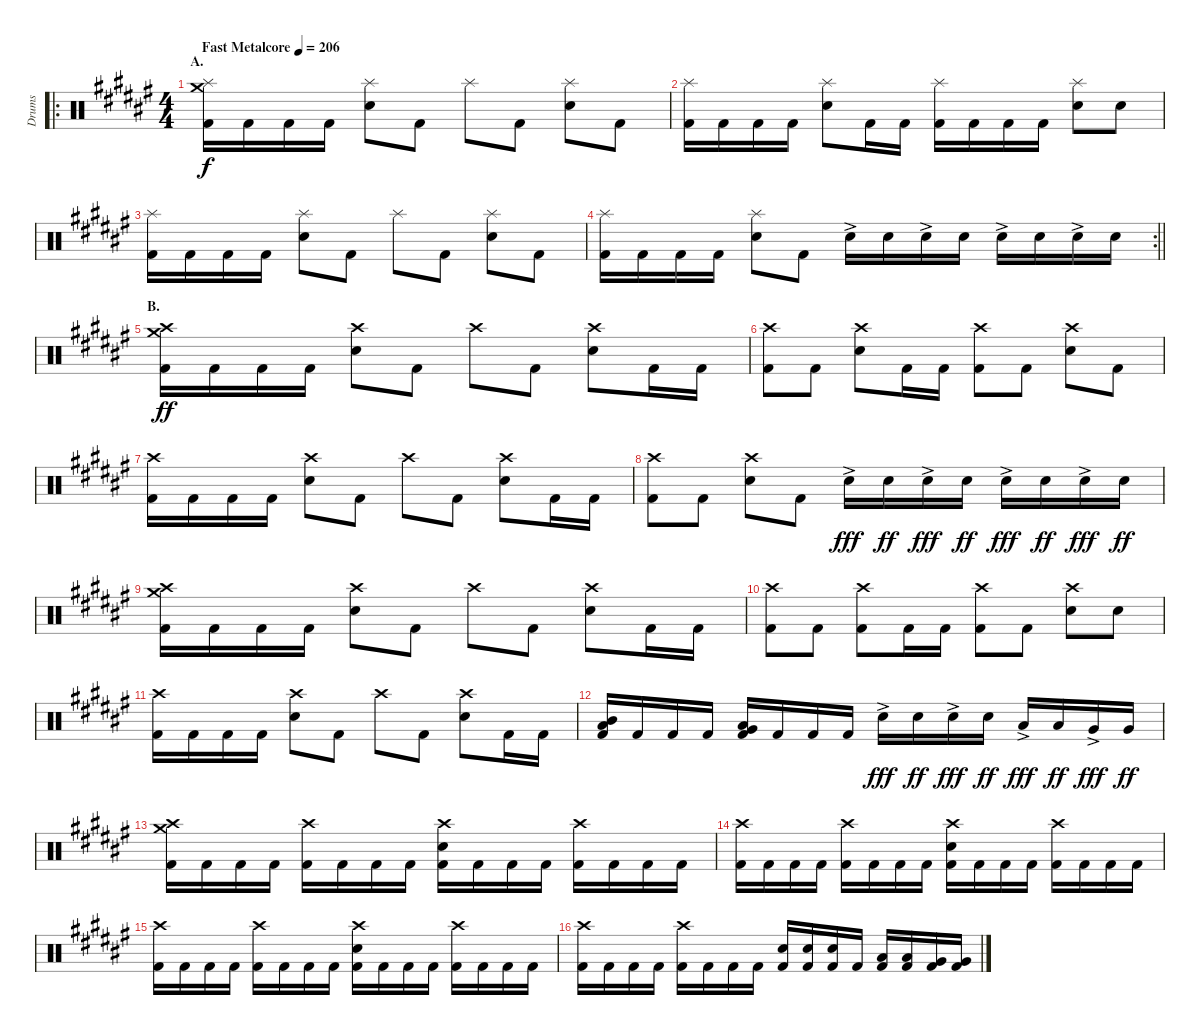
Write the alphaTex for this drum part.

\track ("Drums" "Drums") {instrument percussion}
\staff {score}
\articulation defaults
\ro
\ts (4 4)
\section ("" "A.")
\tempo (206 "Fast Metalcore")
\clef neutral
\ks f#
("Crash medium (hit)" "Splash (hit)" "Kick (hit) 2").16{dy f volume 10} "Kick (hit) 2".16 "Kick (hit) 2".16 "Kick (hit) 2".16 ("Splash (hit)" "Electric Snare (hit)").8 "Kick (hit) 2".8 "Splash (hit)".8 "Kick (hit) 2".8 ("Splash (hit)" "Electric Snare (hit)").8 "Kick (hit) 2".8 |
("Splash (hit)" "Kick (hit) 2").16 "Kick (hit) 2".16 "Kick (hit) 2".16 "Kick (hit) 2".16 ("Splash (hit)" "Electric Snare (hit)").8 "Kick (hit) 2".16 "Kick (hit) 2".16 ("Splash (hit)" "Kick (hit) 2").16 "Kick (hit) 2".16 "Kick (hit) 2".16 "Kick (hit) 2".16 ("Splash (hit)" "Electric Snare (hit)").8 "Electric Snare (hit)".8 |
("Splash (hit)" "Kick (hit) 2").16 "Kick (hit) 2".16 "Kick (hit) 2".16 "Kick (hit) 2".16 ("Splash (hit)" "Electric Snare (hit)").8 "Kick (hit) 2".8 "Splash (hit)".8 "Kick (hit) 2".8 ("Splash (hit)" "Electric Snare (hit)").8 "Kick (hit) 2".8 |
\rc 2
\barLineRight lightlight
("Splash (hit)" "Kick (hit) 2").16 "Kick (hit) 2".16 "Kick (hit) 2".16 "Kick (hit) 2".16 ("Splash (hit)" "Electric Snare (hit)").8 "Kick (hit) 2".8 "Electric Snare (hit)"{ac}.16 "Electric Snare (hit)".16 "Electric Snare (hit)"{ac}.16 "Electric Snare (hit)".16 "Electric Snare (hit)"{ac}.16 "Electric Snare (hit)".16 "Electric Snare (hit)"{ac}.16 "Electric Snare (hit)".16 |
\section ("" "B.")
("Crash medium (hit)" "Crash high (hit)" "Kick (hit) 2").16{dy ff volume 14} "Kick (hit) 2".16 "Kick (hit) 2".16 "Kick (hit) 2".16 ("Crash high (hit)" "Electric Snare (hit)").8 "Kick (hit) 2".8 "Crash high (hit)".8 "Kick (hit) 2".8 ("Crash high (hit)" "Electric Snare (hit)").8 "Kick (hit) 2".16 "Kick (hit) 2".16 |
("Crash high (hit)" "Kick (hit) 2").8 "Kick (hit) 2".8 ("Crash high (hit)" "Electric Snare (hit)").8 "Kick (hit) 2".16 "Kick (hit) 2".16 ("Crash high (hit)" "Kick (hit) 2").8 "Kick (hit) 2".8 ("Crash high (hit)" "Electric Snare (hit)").8 "Kick (hit) 2".8 |
("Crash high (hit)" "Kick (hit) 2").16 "Kick (hit) 2".16 "Kick (hit) 2".16 "Kick (hit) 2".16 ("Crash high (hit)" "Electric Snare (hit)").8 "Kick (hit) 2".8 "Crash high (hit)".8 "Kick (hit) 2".8 ("Crash high (hit)" "Electric Snare (hit)").8 "Kick (hit) 2".16 "Kick (hit) 2".16 |
("Crash high (hit)" "Kick (hit) 2").8 "Kick (hit) 2".8 ("Crash high (hit)" "Electric Snare (hit)").8 "Kick (hit) 2".8 "Electric Snare (hit)"{ac}.16{dy fff} "Electric Snare (hit)".16{dy ff} "Electric Snare (hit)"{ac}.16{dy fff} "Electric Snare (hit)".16{dy ff} "Electric Snare (hit)"{ac}.16{dy fff} "Electric Snare (hit)".16{dy ff} "Electric Snare (hit)"{ac}.16{dy fff} "Electric Snare (hit)".16{dy ff} |
("Crash medium (hit)" "Crash high (hit)" "Kick (hit) 2").16 "Kick (hit) 2".16 "Kick (hit) 2".16 "Kick (hit) 2".16 ("Crash high (hit)" "Electric Snare (hit)").8 "Kick (hit) 2".8 "Crash high (hit)".8 "Kick (hit) 2".8 ("Crash high (hit)" "Electric Snare (hit)").8 "Kick (hit) 2".16 "Kick (hit) 2".16 |
("Crash high (hit)" "Kick (hit) 2").8 "Kick (hit) 2".8 ("Crash high (hit)" "Kick (hit) 2").8 "Kick (hit) 2".16 "Kick (hit) 2".16 ("Crash high (hit)" "Kick (hit) 2").8 "Kick (hit) 2".8 ("Crash high (hit)" "Electric Snare (hit)").8 "Electric Snare (hit)".8 |
("Crash high (hit)" "Kick (hit) 2").16 "Kick (hit) 2".16 "Kick (hit) 2".16 "Kick (hit) 2".16 ("Crash high (hit)" "Electric Snare (hit)").8 "Kick (hit) 2".8 "Crash high (hit)".8 "Kick (hit) 2".8 ("Crash high (hit)" "Electric Snare (hit)").8 "Kick (hit) 2".16 "Kick (hit) 2".16 |
("Mid Tom (hit)" "Low Tom (hit)" "Kick (hit) 2").16 "Kick (hit) 2".16 "Kick (hit) 2".16 "Kick (hit) 2".16 ("Low Tom (hit)" "Very Low Tom (hit)" "Kick (hit) 2").16 "Kick (hit) 2".16 "Kick (hit) 2".16 "Kick (hit) 2".16 "Electric Snare (hit)"{ac}.16{dy fff} "Electric Snare (hit)".16{dy ff} "Electric Snare (hit)"{ac}.16{dy fff} "Electric Snare (hit)".16{dy ff} "Low Tom (hit)"{ac}.16{dy fff} "Low Tom (hit)".16{dy ff} "Very Low Tom (hit)"{ac}.16{dy fff} "Very Low Tom (hit)".16{dy ff} |
("Crash medium (hit)" "Crash high (hit)" "Kick (hit) 2").16 "Kick (hit) 2".16 "Kick (hit) 2".16 "Kick (hit) 2".16 ("Crash high (hit)" "Kick (hit) 2").16 "Kick (hit) 2".16 "Kick (hit) 2".16 "Kick (hit) 2".16 ("Crash high (hit)" "Electric Snare (hit)" "Kick (hit) 2").16 "Kick (hit) 2".16 "Kick (hit) 2".16 "Kick (hit) 2".16 ("Crash high (hit)" "Kick (hit) 2").16 "Kick (hit) 2".16 "Kick (hit) 2".16 "Kick (hit) 2".16 |
("Crash high (hit)" "Kick (hit) 2").16 "Kick (hit) 2".16 "Kick (hit) 2".16 "Kick (hit) 2".16 ("Crash high (hit)" "Kick (hit) 2").16 "Kick (hit) 2".16 "Kick (hit) 2".16 "Kick (hit) 2".16 ("Crash high (hit)" "Electric Snare (hit)" "Kick (hit) 2").16 "Kick (hit) 2".16 "Kick (hit) 2".16 "Kick (hit) 2".16 ("Crash high (hit)" "Kick (hit) 2").16 "Kick (hit) 2".16 "Kick (hit) 2".16 "Kick (hit) 2".16 |
("Crash high (hit)" "Kick (hit) 2").16 "Kick (hit) 2".16 "Kick (hit) 2".16 "Kick (hit) 2".16 ("Crash high (hit)" "Kick (hit) 2").16 "Kick (hit) 2".16 "Kick (hit) 2".16 "Kick (hit) 2".16 ("Crash high (hit)" "Electric Snare (hit)" "Kick (hit) 2").16 "Kick (hit) 2".16 "Kick (hit) 2".16 "Kick (hit) 2".16 ("Crash high (hit)" "Kick (hit) 2").16 "Kick (hit) 2".16 "Kick (hit) 2".16 "Kick (hit) 2".16 |
("Crash high (hit)" "Kick (hit) 2").16 "Kick (hit) 2".16 "Kick (hit) 2".16 "Kick (hit) 2".16 ("Crash high (hit)" "Kick (hit) 2").16 "Kick (hit) 2".16 "Kick (hit) 2".16 "Kick (hit) 2".16 ("Electric Snare (hit)" "Kick (hit) 2").16 ("Electric Snare (hit)" "Kick (hit) 2").16 ("Electric Snare (hit)" "Kick (hit) 2").16 "Kick (hit) 2".16 ("Low Tom (hit)" "Kick (hit) 2").16 ("Low Tom (hit)" "Kick (hit) 2").16 ("Very Low Tom (hit)" "Kick (hit) 2").16 ("Very Low Tom (hit)" "Kick (hit) 2").16
